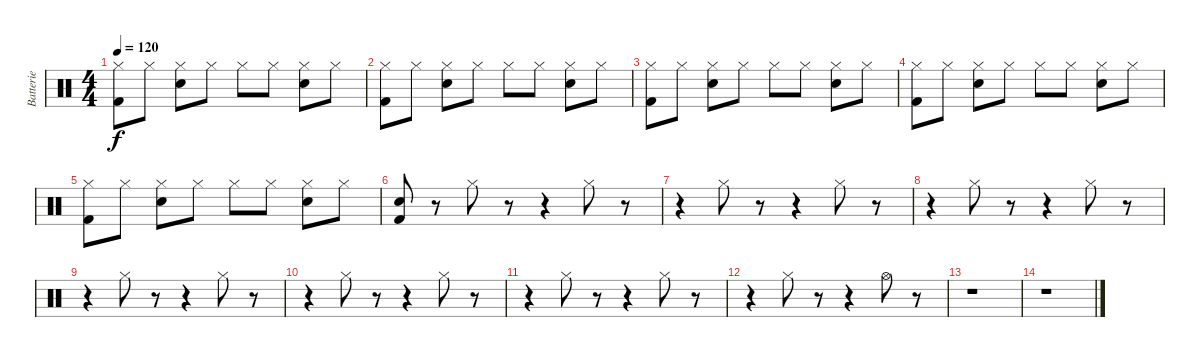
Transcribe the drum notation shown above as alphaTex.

\track ("Batterie" "Batterie") {instrument percussion}
\staff {score}
\articulation defaults
\ts (4 4)
\tempo 120
\clef neutral
\ks c
("Hi-Hat (closed)" "Kick (hit) 2").8{dy f} "Hi-Hat (closed)".8 ("Hi-Hat (closed)" "Electric Snare (hit)").8 "Hi-Hat (closed)".8 "Hi-Hat (closed)".8 "Hi-Hat (closed)".8 ("Hi-Hat (closed)" "Electric Snare (hit)").8 "Hi-Hat (closed)".8 |
("Hi-Hat (closed)" "Kick (hit) 2").8 "Hi-Hat (closed)".8 ("Hi-Hat (closed)" "Electric Snare (hit)").8 "Hi-Hat (closed)".8 "Hi-Hat (closed)".8 "Hi-Hat (closed)".8 ("Hi-Hat (closed)" "Electric Snare (hit)").8 "Hi-Hat (closed)".8 |
("Hi-Hat (closed)" "Kick (hit) 2").8 "Hi-Hat (closed)".8 ("Hi-Hat (closed)" "Electric Snare (hit)").8 "Hi-Hat (closed)".8 "Hi-Hat (closed)".8 "Hi-Hat (closed)".8 ("Hi-Hat (closed)" "Electric Snare (hit)").8 "Hi-Hat (closed)".8 |
("Hi-Hat (closed)" "Kick (hit) 2").8 "Hi-Hat (closed)".8 ("Hi-Hat (closed)" "Electric Snare (hit)").8 "Hi-Hat (closed)".8 "Hi-Hat (closed)".8 "Hi-Hat (closed)".8 ("Hi-Hat (closed)" "Electric Snare (hit)").8 "Hi-Hat (closed)".8 |
("Hi-Hat (closed)" "Kick (hit) 2").8 "Hi-Hat (closed)".8 ("Hi-Hat (closed)" "Electric Snare (hit)").8 "Hi-Hat (closed)".8 "Hi-Hat (closed)".8 "Hi-Hat (closed)".8 ("Hi-Hat (closed)" "Electric Snare (hit)").8 "Hi-Hat (closed)".8 |
("Electric Snare (hit)" "Kick (hit) 2").8 r.8 "Hi-Hat (closed)".8 r.8 r.4 "Hi-Hat (closed)".8 r.8 |
r.4 "Hi-Hat (closed)".8 r.8 r.4 "Hi-Hat (closed)".8 r.8 |
r.4 "Hi-Hat (closed)".8 r.8 r.4 "Hi-Hat (closed)".8 r.8 |
r.4 "Hi-Hat (closed)".8 r.8 r.4 "Hi-Hat (closed)".8 r.8 |
r.4 "Hi-Hat (closed)".8 r.8 r.4 "Hi-Hat (closed)".8 r.8 |
r.4 "Hi-Hat (closed)".8 r.8 r.4 "Hi-Hat (closed)".8 r.8 |
r.4 "Hi-Hat (closed)".8 r.8 r.4 "Hi-Hat (open)".8 r.8 |
r.1 |
r.1
